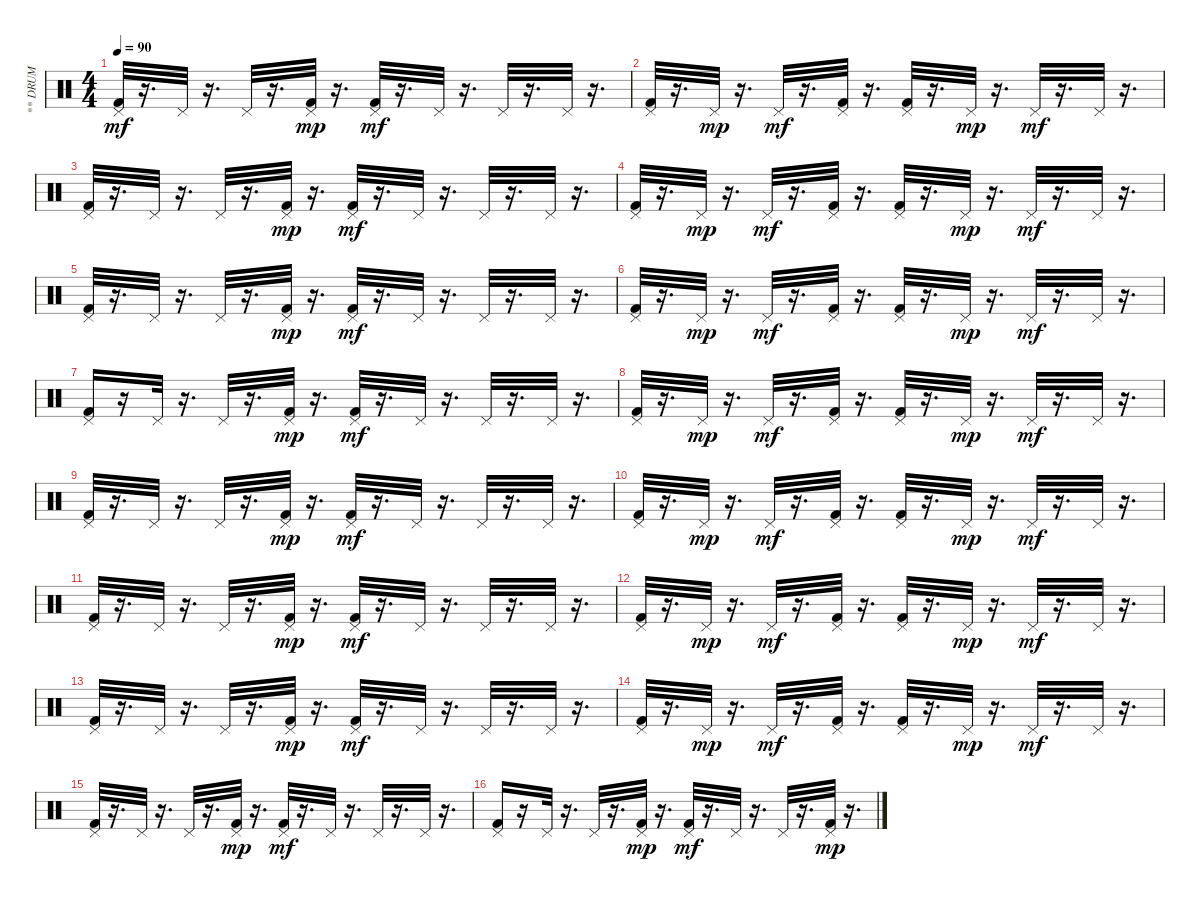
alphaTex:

\track ("** DRUM" "** DRUM") {instrument percussion}
\staff {score}
\articulation defaults
\ts (4 4)
\tempo 90
\clef neutral
\ks c
("Kick (hit) 2" "Pedal Hi-Hat (hit)").32{dy mf} r.16{d} "Pedal Hi-Hat (hit)".32 r.16{d} "Pedal Hi-Hat (hit)".32 r.16{d} ("Kick (hit) 2" "Pedal Hi-Hat (hit)").32{dy mp} r.16{d} ("Kick (hit) 2" "Pedal Hi-Hat (hit)").32{dy mf} r.16{d} "Pedal Hi-Hat (hit)".32 r.16{d} "Pedal Hi-Hat (hit)".32 r.16{d} "Pedal Hi-Hat (hit)".32 r.16{d} |
("Kick (hit) 2" "Pedal Hi-Hat (hit)").32 r.16{d} "Pedal Hi-Hat (hit)".32{dy mp} r.16{d} "Pedal Hi-Hat (hit)".32{dy mf} r.16{d} ("Kick (hit) 2" "Pedal Hi-Hat (hit)").32 r.16{d} ("Kick (hit) 2" "Pedal Hi-Hat (hit)").32 r.16{d} "Pedal Hi-Hat (hit)".32{dy mp} r.16{d} "Pedal Hi-Hat (hit)".32{dy mf} r.16{d} "Pedal Hi-Hat (hit)".32 r.16{d} |
("Kick (hit) 2" "Pedal Hi-Hat (hit)").32 r.16{d} "Pedal Hi-Hat (hit)".32 r.16{d} "Pedal Hi-Hat (hit)".32 r.16{d} ("Kick (hit) 2" "Pedal Hi-Hat (hit)").32{dy mp} r.16{d} ("Kick (hit) 2" "Pedal Hi-Hat (hit)").32{dy mf} r.16{d} "Pedal Hi-Hat (hit)".32 r.16{d} "Pedal Hi-Hat (hit)".32 r.16{d} "Pedal Hi-Hat (hit)".32 r.16{d} |
("Kick (hit) 2" "Pedal Hi-Hat (hit)").32 r.16{d} "Pedal Hi-Hat (hit)".32{dy mp} r.16{d} "Pedal Hi-Hat (hit)".32{dy mf} r.16{d} ("Kick (hit) 2" "Pedal Hi-Hat (hit)").32 r.16{d} ("Kick (hit) 2" "Pedal Hi-Hat (hit)").32 r.16{d} "Pedal Hi-Hat (hit)".32{dy mp} r.16{d} "Pedal Hi-Hat (hit)".32{dy mf} r.16{d} "Pedal Hi-Hat (hit)".32 r.16{d} |
("Kick (hit) 2" "Pedal Hi-Hat (hit)").32 r.16{d} "Pedal Hi-Hat (hit)".32 r.16{d} "Pedal Hi-Hat (hit)".32 r.16{d} ("Kick (hit) 2" "Pedal Hi-Hat (hit)").32{dy mp} r.16{d} ("Kick (hit) 2" "Pedal Hi-Hat (hit)").32{dy mf} r.16{d} "Pedal Hi-Hat (hit)".32 r.16{d} "Pedal Hi-Hat (hit)".32 r.16{d} "Pedal Hi-Hat (hit)".32 r.16{d} |
("Kick (hit) 2" "Pedal Hi-Hat (hit)").32 r.16{d} "Pedal Hi-Hat (hit)".32{dy mp} r.16{d} "Pedal Hi-Hat (hit)".32{dy mf} r.16{d} ("Kick (hit) 2" "Pedal Hi-Hat (hit)").32 r.16{d} ("Kick (hit) 2" "Pedal Hi-Hat (hit)").32 r.16{d} "Pedal Hi-Hat (hit)".32{dy mp} r.16{d} "Pedal Hi-Hat (hit)".32{dy mf} r.16{d} "Pedal Hi-Hat (hit)".32 r.16{d} |
("Kick (hit) 2" "Pedal Hi-Hat (hit)").16 r.16 "Pedal Hi-Hat (hit)".32 r.16{d} "Pedal Hi-Hat (hit)".32 r.16{d} ("Kick (hit) 2" "Pedal Hi-Hat (hit)").32{dy mp} r.16{d} ("Kick (hit) 2" "Pedal Hi-Hat (hit)").32{dy mf} r.16{d} "Pedal Hi-Hat (hit)".32 r.16{d} "Pedal Hi-Hat (hit)".32 r.16{d} "Pedal Hi-Hat (hit)".32 r.16{d} |
("Kick (hit) 2" "Pedal Hi-Hat (hit)").32 r.16{d} "Pedal Hi-Hat (hit)".32{dy mp} r.16{d} "Pedal Hi-Hat (hit)".32{dy mf} r.16{d} ("Kick (hit) 2" "Pedal Hi-Hat (hit)").32 r.16{d} ("Kick (hit) 2" "Pedal Hi-Hat (hit)").32 r.16{d} "Pedal Hi-Hat (hit)".32{dy mp} r.16{d} "Pedal Hi-Hat (hit)".32{dy mf} r.16{d} "Pedal Hi-Hat (hit)".32 r.16{d} |
("Kick (hit) 2" "Pedal Hi-Hat (hit)").32 r.16{d} "Pedal Hi-Hat (hit)".32 r.16{d} "Pedal Hi-Hat (hit)".32 r.16{d} ("Kick (hit) 2" "Pedal Hi-Hat (hit)").32{dy mp} r.16{d} ("Kick (hit) 2" "Pedal Hi-Hat (hit)").32{dy mf} r.16{d} "Pedal Hi-Hat (hit)".32 r.16{d} "Pedal Hi-Hat (hit)".32 r.16{d} "Pedal Hi-Hat (hit)".32 r.16{d} |
("Kick (hit) 2" "Pedal Hi-Hat (hit)").32 r.16{d} "Pedal Hi-Hat (hit)".32{dy mp} r.16{d} "Pedal Hi-Hat (hit)".32{dy mf} r.16{d} ("Kick (hit) 2" "Pedal Hi-Hat (hit)").32 r.16{d} ("Kick (hit) 2" "Pedal Hi-Hat (hit)").32 r.16{d} "Pedal Hi-Hat (hit)".32{dy mp} r.16{d} "Pedal Hi-Hat (hit)".32{dy mf} r.16{d} "Pedal Hi-Hat (hit)".32 r.16{d} |
("Kick (hit) 2" "Pedal Hi-Hat (hit)").32 r.16{d} "Pedal Hi-Hat (hit)".32 r.16{d} "Pedal Hi-Hat (hit)".32 r.16{d} ("Kick (hit) 2" "Pedal Hi-Hat (hit)").32{dy mp} r.16{d} ("Kick (hit) 2" "Pedal Hi-Hat (hit)").32{dy mf} r.16{d} "Pedal Hi-Hat (hit)".32 r.16{d} "Pedal Hi-Hat (hit)".32 r.16{d} "Pedal Hi-Hat (hit)".32 r.16{d} |
("Kick (hit) 2" "Pedal Hi-Hat (hit)").32 r.16{d} "Pedal Hi-Hat (hit)".32{dy mp} r.16{d} "Pedal Hi-Hat (hit)".32{dy mf} r.16{d} ("Kick (hit) 2" "Pedal Hi-Hat (hit)").32 r.16{d} ("Kick (hit) 2" "Pedal Hi-Hat (hit)").32 r.16{d} "Pedal Hi-Hat (hit)".32{dy mp} r.16{d} "Pedal Hi-Hat (hit)".32{dy mf} r.16{d} "Pedal Hi-Hat (hit)".32 r.16{d} |
("Kick (hit) 2" "Pedal Hi-Hat (hit)").32 r.16{d} "Pedal Hi-Hat (hit)".32 r.16{d} "Pedal Hi-Hat (hit)".32 r.16{d} ("Kick (hit) 2" "Pedal Hi-Hat (hit)").32{dy mp} r.16{d} ("Kick (hit) 2" "Pedal Hi-Hat (hit)").32{dy mf} r.16{d} "Pedal Hi-Hat (hit)".32 r.16{d} "Pedal Hi-Hat (hit)".32 r.16{d} "Pedal Hi-Hat (hit)".32 r.16{d} |
("Kick (hit) 2" "Pedal Hi-Hat (hit)").32 r.16{d} "Pedal Hi-Hat (hit)".32{dy mp} r.16{d} "Pedal Hi-Hat (hit)".32{dy mf} r.16{d} ("Kick (hit) 2" "Pedal Hi-Hat (hit)").32 r.16{d} ("Kick (hit) 2" "Pedal Hi-Hat (hit)").32 r.16{d} "Pedal Hi-Hat (hit)".32{dy mp} r.16{d} "Pedal Hi-Hat (hit)".32{dy mf} r.16{d} "Pedal Hi-Hat (hit)".32 r.16{d} |
("Kick (hit) 2" "Pedal Hi-Hat (hit)").32 r.16{d} "Pedal Hi-Hat (hit)".32 r.16{d} "Pedal Hi-Hat (hit)".32 r.16{d} ("Kick (hit) 2" "Pedal Hi-Hat (hit)").32{dy mp} r.16{d} ("Kick (hit) 2" "Pedal Hi-Hat (hit)").32{dy mf} r.16{d} "Pedal Hi-Hat (hit)".32 r.16{d} "Pedal Hi-Hat (hit)".32 r.16{d} "Pedal Hi-Hat (hit)".32 r.16{d} |
("Kick (hit) 2" "Pedal Hi-Hat (hit)").16 r.16 "Pedal Hi-Hat (hit)".32 r.16{d} "Pedal Hi-Hat (hit)".32 r.16{d} ("Kick (hit) 2" "Pedal Hi-Hat (hit)").32{dy mp} r.16{d} ("Kick (hit) 2" "Pedal Hi-Hat (hit)").32{dy mf} r.16{d} "Pedal Hi-Hat (hit)".32 r.16{d} "Pedal Hi-Hat (hit)".32 r.16{d} ("Kick (hit) 2" "Pedal Hi-Hat (hit)").32{dy mp} r.16{d}
